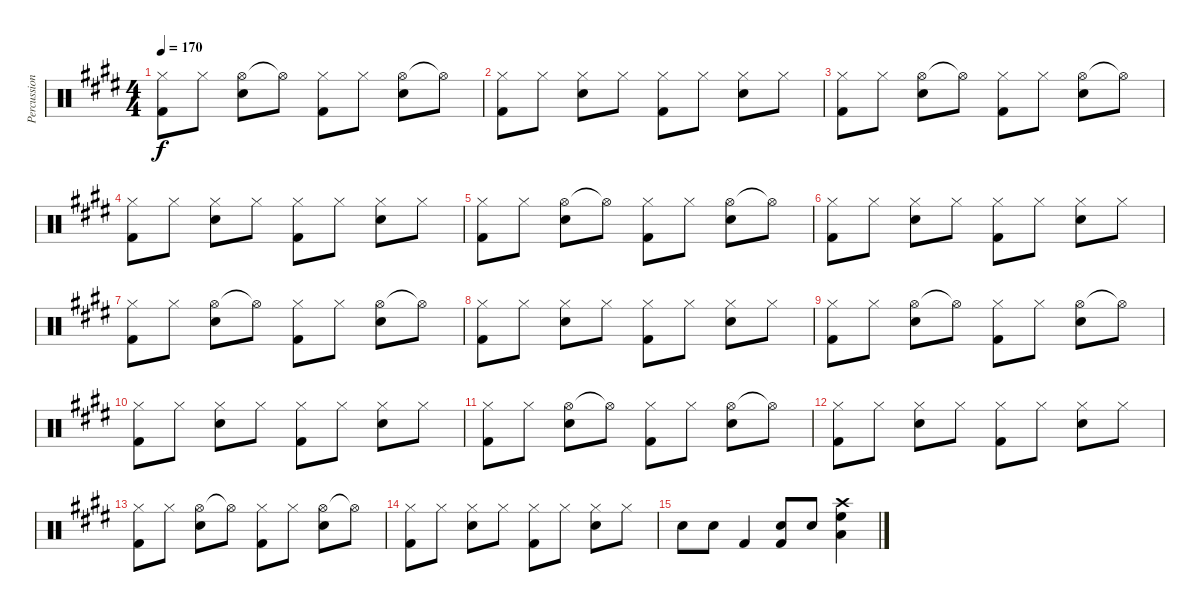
\track ("Percussion" "Percussion") {instrument percussion}
\staff {score}
\articulation defaults
\ts (4 4)
\tempo 170
\clef neutral
\ks e
("Hi-Hat (closed)" "Kick (hit) 2").8{dy f} "Hi-Hat (closed)".8 ("Hi-Hat (open)" "Snare (hit) 2").8 "Hi-Hat (open)"{t}.8 ("Hi-Hat (closed)" "Kick (hit) 2").8 "Hi-Hat (closed)".8 ("Hi-Hat (open)" "Snare (hit) 2").8 "Hi-Hat (open)"{t}.8 |
("Hi-Hat (closed)" "Kick (hit) 2").8 "Hi-Hat (closed)".8 ("Hi-Hat (closed)" "Snare (hit) 2").8 "Hi-Hat (closed)".8 ("Hi-Hat (closed)" "Kick (hit) 2").8 "Hi-Hat (closed)".8 ("Hi-Hat (closed)" "Snare (hit) 2").8 "Hi-Hat (closed)".8 |
("Hi-Hat (closed)" "Kick (hit) 2").8 "Hi-Hat (closed)".8 ("Hi-Hat (open)" "Snare (hit) 2").8 "Hi-Hat (open)"{t}.8 ("Hi-Hat (closed)" "Kick (hit) 2").8 "Hi-Hat (closed)".8 ("Hi-Hat (open)" "Snare (hit) 2").8 "Hi-Hat (open)"{t}.8 |
("Hi-Hat (closed)" "Kick (hit) 2").8 "Hi-Hat (closed)".8 ("Hi-Hat (closed)" "Snare (hit) 2").8 "Hi-Hat (closed)".8 ("Hi-Hat (closed)" "Kick (hit) 2").8 "Hi-Hat (closed)".8 ("Hi-Hat (closed)" "Snare (hit) 2").8 "Hi-Hat (closed)".8 |
("Hi-Hat (closed)" "Kick (hit) 2").8 "Hi-Hat (closed)".8 ("Hi-Hat (open)" "Snare (hit) 2").8 "Hi-Hat (open)"{t}.8 ("Hi-Hat (closed)" "Kick (hit) 2").8 "Hi-Hat (closed)".8 ("Hi-Hat (open)" "Snare (hit) 2").8 "Hi-Hat (open)"{t}.8 |
("Hi-Hat (closed)" "Kick (hit) 2").8 "Hi-Hat (closed)".8 ("Hi-Hat (closed)" "Snare (hit) 2").8 "Hi-Hat (closed)".8 ("Hi-Hat (closed)" "Kick (hit) 2").8 "Hi-Hat (closed)".8 ("Hi-Hat (closed)" "Snare (hit) 2").8 "Hi-Hat (closed)".8 |
("Hi-Hat (closed)" "Kick (hit) 2").8 "Hi-Hat (closed)".8 ("Hi-Hat (open)" "Snare (hit) 2").8 "Hi-Hat (open)"{t}.8 ("Hi-Hat (closed)" "Kick (hit) 2").8 "Hi-Hat (closed)".8 ("Hi-Hat (open)" "Snare (hit) 2").8 "Hi-Hat (open)"{t}.8 |
("Hi-Hat (closed)" "Kick (hit) 2").8 "Hi-Hat (closed)".8 ("Hi-Hat (closed)" "Snare (hit) 2").8 "Hi-Hat (closed)".8 ("Hi-Hat (closed)" "Kick (hit) 2").8 "Hi-Hat (closed)".8 ("Hi-Hat (closed)" "Snare (hit) 2").8 "Hi-Hat (closed)".8 |
("Hi-Hat (closed)" "Kick (hit) 2").8 "Hi-Hat (closed)".8 ("Hi-Hat (open)" "Snare (hit) 2").8 "Hi-Hat (open)"{t}.8 ("Hi-Hat (closed)" "Kick (hit) 2").8 "Hi-Hat (closed)".8 ("Hi-Hat (open)" "Snare (hit) 2").8 "Hi-Hat (open)"{t}.8 |
("Hi-Hat (closed)" "Kick (hit) 2").8 "Hi-Hat (closed)".8 ("Hi-Hat (closed)" "Snare (hit) 2").8 "Hi-Hat (closed)".8 ("Hi-Hat (closed)" "Kick (hit) 2").8 "Hi-Hat (closed)".8 ("Hi-Hat (closed)" "Snare (hit) 2").8 "Hi-Hat (closed)".8 |
("Hi-Hat (closed)" "Kick (hit) 2").8 "Hi-Hat (closed)".8 ("Hi-Hat (open)" "Snare (hit) 2").8 "Hi-Hat (open)"{t}.8 ("Hi-Hat (closed)" "Kick (hit) 2").8 "Hi-Hat (closed)".8 ("Hi-Hat (open)" "Snare (hit) 2").8 "Hi-Hat (open)"{t}.8 |
("Hi-Hat (closed)" "Kick (hit) 2").8 "Hi-Hat (closed)".8 ("Hi-Hat (closed)" "Snare (hit) 2").8 "Hi-Hat (closed)".8 ("Hi-Hat (closed)" "Kick (hit) 2").8 "Hi-Hat (closed)".8 ("Hi-Hat (closed)" "Snare (hit) 2").8 "Hi-Hat (closed)".8 |
("Hi-Hat (closed)" "Kick (hit) 2").8 "Hi-Hat (closed)".8 ("Hi-Hat (open)" "Snare (hit) 2").8 "Hi-Hat (open)"{t}.8 ("Hi-Hat (closed)" "Kick (hit) 2").8 "Hi-Hat (closed)".8 ("Hi-Hat (open)" "Snare (hit) 2").8 "Hi-Hat (open)"{t}.8 |
("Hi-Hat (closed)" "Kick (hit) 2").8 "Hi-Hat (closed)".8 ("Hi-Hat (closed)" "Snare (hit) 2").8 "Hi-Hat (closed)".8 ("Hi-Hat (closed)" "Kick (hit) 2").8 "Hi-Hat (closed)".8 ("Hi-Hat (closed)" "Snare (hit) 2").8 "Hi-Hat (closed)".8 |
"Snare (hit) 2".8 "Snare (hit) 2".8 "Kick (hit) 2".4 ("Snare (hit) 2" "Kick (hit) 2").8 "Snare (hit) 2".8 ("Crash high (hit)" "High Floor Tom (hit)" "Low Tom (hit)").4
